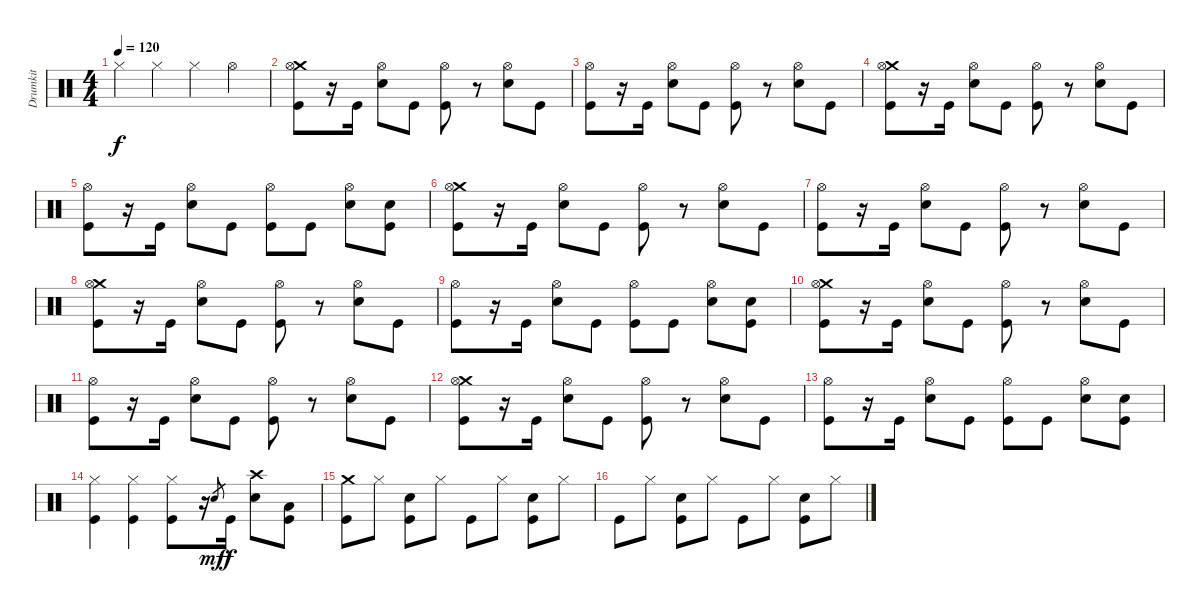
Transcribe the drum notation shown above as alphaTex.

\track ("Drumkit" "Drumkit") {instrument percussion}
\staff {score}
\articulation defaults
\ts (4 4)
\tempo 120
\clef neutral
\ks c "Hi-Hat (closed)".4{dy f} "Hi-Hat (closed)".4 "Hi-Hat (closed)".4 "Hi-Hat (open)".4
|
("Crash medium (hit)" "Hi-Hat (open)" "Kick (hit)").8 r.16 "Kick (hit)".16 ("Hi-Hat (open)" "Snare (hit) 2").8 "Kick (hit)".8 ("Hi-Hat (open)" "Kick (hit)").8 r.8 ("Hi-Hat (open)" "Snare (hit) 2").8 "Kick (hit)".8 |
("Hi-Hat (open)" "Kick (hit)").8 r.16 "Kick (hit)".16 ("Hi-Hat (open)" "Snare (hit) 2").8 "Kick (hit)".8 ("Hi-Hat (open)" "Kick (hit)").8 r.8 ("Hi-Hat (open)" "Snare (hit) 2").8 "Kick (hit)".8 |
("Crash medium (hit)" "Hi-Hat (open)" "Kick (hit)").8 r.16 "Kick (hit)".16 ("Hi-Hat (open)" "Snare (hit) 2").8 "Kick (hit)".8 ("Hi-Hat (open)" "Kick (hit)").8 r.8 ("Hi-Hat (open)" "Snare (hit) 2").8 "Kick (hit)".8 |
("Hi-Hat (open)" "Kick (hit)").8 r.16 "Kick (hit)".16 ("Hi-Hat (open)" "Snare (hit) 2").8 "Kick (hit)".8 ("Hi-Hat (open)" "Kick (hit)").8 "Kick (hit)".8 ("Hi-Hat (open)" "Snare (hit) 2").8 ("Snare (hit) 2" "Kick (hit)").8 |
("Crash medium (hit)" "Hi-Hat (open)" "Kick (hit)").8 r.16 "Kick (hit)".16 ("Hi-Hat (open)" "Snare (hit) 2").8 "Kick (hit)".8 ("Hi-Hat (open)" "Kick (hit)").8 r.8 ("Hi-Hat (open)" "Snare (hit) 2").8 "Kick (hit)".8 |
("Hi-Hat (open)" "Kick (hit)").8 r.16 "Kick (hit)".16 ("Hi-Hat (open)" "Snare (hit) 2").8 "Kick (hit)".8 ("Hi-Hat (open)" "Kick (hit)").8 r.8 ("Hi-Hat (open)" "Snare (hit) 2").8 "Kick (hit)".8 |
("Crash medium (hit)" "Hi-Hat (open)" "Kick (hit)").8 r.16 "Kick (hit)".16 ("Hi-Hat (open)" "Snare (hit) 2").8 "Kick (hit)".8 ("Hi-Hat (open)" "Kick (hit)").8 r.8 ("Hi-Hat (open)" "Snare (hit) 2").8 "Kick (hit)".8 |
("Hi-Hat (open)" "Kick (hit)").8 r.16 "Kick (hit)".16 ("Hi-Hat (open)" "Snare (hit) 2").8 "Kick (hit)".8 ("Hi-Hat (open)" "Kick (hit)").8 "Kick (hit)".8 ("Hi-Hat (open)" "Snare (hit) 2").8 ("Snare (hit) 2" "Kick (hit)").8 |
("Crash medium (hit)" "Hi-Hat (open)" "Kick (hit)").8 r.16 "Kick (hit)".16 ("Hi-Hat (open)" "Snare (hit) 2").8 "Kick (hit)".8 ("Hi-Hat (open)" "Kick (hit)").8 r.8 ("Hi-Hat (open)" "Snare (hit) 2").8 "Kick (hit)".8 |
("Hi-Hat (open)" "Kick (hit)").8 r.16 "Kick (hit)".16 ("Hi-Hat (open)" "Snare (hit) 2").8 "Kick (hit)".8 ("Hi-Hat (open)" "Kick (hit)").8 r.8 ("Hi-Hat (open)" "Snare (hit) 2").8 "Kick (hit)".8 |
("Crash medium (hit)" "Hi-Hat (open)" "Kick (hit)").8 r.16 "Kick (hit)".16 ("Hi-Hat (open)" "Snare (hit) 2").8 "Kick (hit)".8 ("Hi-Hat (open)" "Kick (hit)").8 r.8 ("Hi-Hat (open)" "Snare (hit) 2").8 "Kick (hit)".8 |
("Hi-Hat (open)" "Kick (hit)").8 r.16 "Kick (hit)".16 ("Hi-Hat (open)" "Snare (hit) 2").8 "Kick (hit)".8 ("Hi-Hat (open)" "Kick (hit)").8 "Kick (hit)".8 ("Hi-Hat (open)" "Snare (hit) 2").8 ("Snare (hit) 2" "Kick (hit)").8 |
("Hi-Hat (closed)" "Kick (hit)").4 ("Hi-Hat (closed)" "Kick (hit)").4 ("Hi-Hat (closed)" "Kick (hit)").8 r.16 "Snare (hit)".8{gr dy mf} "Kick (hit)".16{dy f} ("Crash high (hit)" "Snare (hit) 2").8 ("Low Floor Tom (hit)" "Kick (hit)").8 |
("Crash medium (hit)" "Kick (hit)").8 "Hi-Hat (closed)".8 ("Snare (hit) 2" "Kick (hit)").8 "Hi-Hat (closed)".8 "Kick (hit)".8 "Hi-Hat (closed)".8 ("Snare (hit) 2" "Kick (hit)").8 "Hi-Hat (closed)".8 |
"Kick (hit)".8 "Hi-Hat (closed)".8 ("Snare (hit) 2" "Kick (hit)").8 "Hi-Hat (closed)".8 "Kick (hit)".8 "Hi-Hat (closed)".8 ("Snare (hit) 2" "Kick (hit)").8 "Hi-Hat (closed)".8
